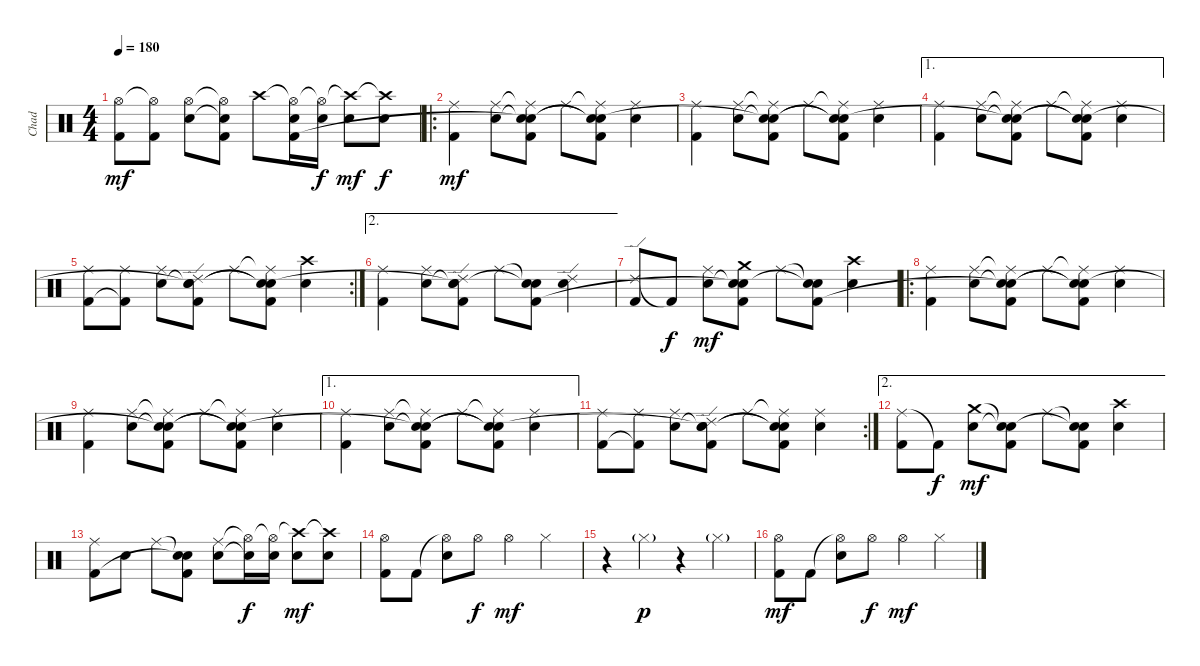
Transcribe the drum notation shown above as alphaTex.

\track ("Chad" "Chad") {instrument percussion}
\staff {score}
\articulation defaults
\ts (4 4)
\tempo 180
\clef neutral
\ks c
("Hi-Hat (open)" "Kick (hit) 2").8{dy mf} ("Hi-Hat (open)"{t} "Kick (hit) 2").8 ("Hi-Hat (open)" "Snare (hit) 2").8 ("Hi-Hat (open)"{t} "Snare (hit) 2"{t} "Kick (hit) 2").8 "Crash high (hit)".8 ("Hi-Hat (open)"{t} "Snare (hit) 2" "Kick (hit) 2").16 ("Hi-Hat (open)"{t} "Snare (hit) 2").16{dy f} ("Crash high (hit)"{t} "Snare (hit) 2").8{dy mf} ("Crash high (hit)"{t} "Snare (hit) 2").8{dy f} |
\ro
("Ride (middle)" "Kick (hit) 2").4{dy mf} ("Ride (middle)" "Snare (hit) 2").8 ("Ride (middle)"{t} "Snare (hit)"{t} "Snare (hit) 2"{t} "Kick (hit) 2").8 "Ride (middle)".8 ("Ride (middle)"{t} "Snare (hit)"{t} "Snare (hit) 2"{t} "Kick (hit) 2").8 ("Ride (middle)" "Snare (hit) 2").4 |
("Ride (middle)" "Kick (hit) 2").4 ("Ride (middle)" "Snare (hit) 2").8 ("Ride (middle)"{t} "Snare (hit)"{t} "Snare (hit) 2"{t} "Kick (hit) 2").8 "Ride (middle)".8 ("Ride (middle)"{t} "Snare (hit)"{t} "Snare (hit) 2"{t} "Kick (hit) 2").8 ("Ride (middle)" "Snare (hit) 2").4 |
\ae 1
("Ride (middle)" "Kick (hit) 2").4 ("Ride (middle)" "Snare (hit) 2").8 ("Ride (middle)"{t} "Snare (hit)"{t} "Snare (hit) 2"{t} "Kick (hit) 2").8 "Ride (middle)".8 ("Ride (middle)"{t} "Snare (hit)"{t} "Snare (hit) 2"{t} "Kick (hit) 2").8 ("Ride (middle)" "Snare (hit) 2").4 |
\rc 2
("Ride (middle)" "Kick (hit) 2").8 ("Ride (middle)" "Kick (hit) 2"{t}).8 ("Ride (middle)" "Snare (hit) 2").8 ("Ride (edge) 2" "Snare (hit)"{t} "Snare (hit) 2"{t} "Kick (hit) 2").8 "Ride (middle)".8 ("Ride (middle)"{t} "Snare (hit)"{t} "Snare (hit) 2"{t} "Kick (hit) 2").8 ("Crash high (hit)" "Snare (hit) 2").4 |
\ae 2
("Ride (middle)" "Kick (hit) 2").4 ("Ride (middle)" "Snare (hit) 2").8 ("Ride (edge) 2" "Snare (hit)"{t} "Snare (hit) 2"{t} "Kick (hit) 2").8 "Ride (middle)".8 ("Snare (hit)"{t} "Snare (hit) 2"{t} "Kick (hit) 2").8 ("Ride (edge) 2" "Snare (hit) 2").4 |
("Ride (edge) 2" "Kick (hit) 2").8 "Kick (hit) 2"{t}.8{dy f} ("Ride (middle)" "Snare (hit) 2").8{dy mf} ("Crash medium (hit)" "Snare (hit)"{t} "Snare (hit) 2"{t} "Kick (hit) 2").8 "Ride (middle)".8 ("Snare (hit)"{t} "Snare (hit) 2"{t} "Kick (hit) 2").8 ("Crash high (hit)" "Snare (hit) 2").4 |
\ro
("Ride (middle)" "Kick (hit) 2").4 ("Ride (middle)" "Snare (hit) 2").8 ("Ride (middle)"{t} "Snare (hit)"{t} "Snare (hit) 2"{t} "Kick (hit) 2").8 "Ride (middle)".8 ("Ride (middle)"{t} "Snare (hit)"{t} "Snare (hit) 2"{t} "Kick (hit) 2").8 ("Ride (middle)" "Snare (hit) 2").4 |
("Ride (middle)" "Kick (hit) 2").4 ("Ride (middle)" "Snare (hit) 2").8 ("Ride (middle)"{t} "Snare (hit)"{t} "Snare (hit) 2"{t} "Kick (hit) 2").8 "Ride (middle)".8 ("Ride (middle)"{t} "Snare (hit)"{t} "Snare (hit) 2"{t} "Kick (hit) 2").8 ("Ride (middle)" "Snare (hit) 2").4 |
\ae 1
("Ride (middle)" "Kick (hit) 2").4 ("Ride (middle)" "Snare (hit) 2").8 ("Ride (middle)"{t} "Snare (hit)"{t} "Snare (hit) 2"{t} "Kick (hit) 2").8 "Ride (middle)".8 ("Ride (middle)"{t} "Snare (hit)"{t} "Snare (hit) 2"{t} "Kick (hit) 2").8 ("Ride (middle)" "Snare (hit) 2").4 |
\rc 2
("Ride (middle)" "Kick (hit) 2").8 ("Ride (middle)" "Kick (hit) 2"{t}).8 ("Ride (middle)" "Snare (hit) 2").8 ("Ride (edge) 2" "Snare (hit)"{t} "Snare (hit) 2"{t} "Kick (hit) 2").8 "Ride (middle)".8 ("Ride (middle)"{t} "Snare (hit)"{t} "Snare (hit) 2"{t} "Kick (hit) 2").8 ("Ride (middle)" "Snare (hit) 2").4 |
\ae 2
("Ride (middle)" "Kick (hit) 2").8 "Kick (hit) 2"{t}.8{dy f} ("Crash medium (hit)" "Snare (hit) 2").8{dy mf} ("Snare (hit)"{t} "Snare (hit) 2"{t} "Kick (hit) 2").8 "Ride (middle)".8 ("Snare (hit)"{t} "Snare (hit) 2"{t} "Kick (hit) 2").8 ("Crash high (hit)" "Snare (hit) 2").4 |
("Ride (middle)" "Kick (hit) 2").8 "Snare (hit) 2".8 "Ride (middle)".8 ("Snare (hit)"{t} "Snare (hit) 2"{t} "Kick (hit) 2").8 ("Ride (middle)" "Snare (hit) 2").8 ("Hi-Hat (open)"{t} "Snare (hit) 2"{t}).16{dy f} ("Hi-Hat (open)"{t} "Snare (hit) 2").16 ("Crash high (hit)"{t} "Snare (hit) 2").8{dy mf} ("Crash high (hit)"{t} "Snare (hit) 2").8 |
("Hi-Hat (open)" "Kick (hit) 2").8 "Kick (hit) 2".8 ("Hi-Hat (open)"{t} "Snare (hit) 2").8 "Hi-Hat (open)".8{dy f} "Hi-Hat (open)".4{dy mf} "Hi-Hat (closed)".4 |
r.4 "Hi-Hat (closed)"{g}.4{dy p} r.4 "Hi-Hat (closed)"{g}.4 |
("Hi-Hat (open)" "Kick (hit) 2").8{dy mf} "Kick (hit) 2".8 ("Hi-Hat (open)"{t} "Snare (hit) 2").8 "Hi-Hat (open)".8{dy f} "Hi-Hat (open)".4{dy mf} "Hi-Hat (closed)".4
